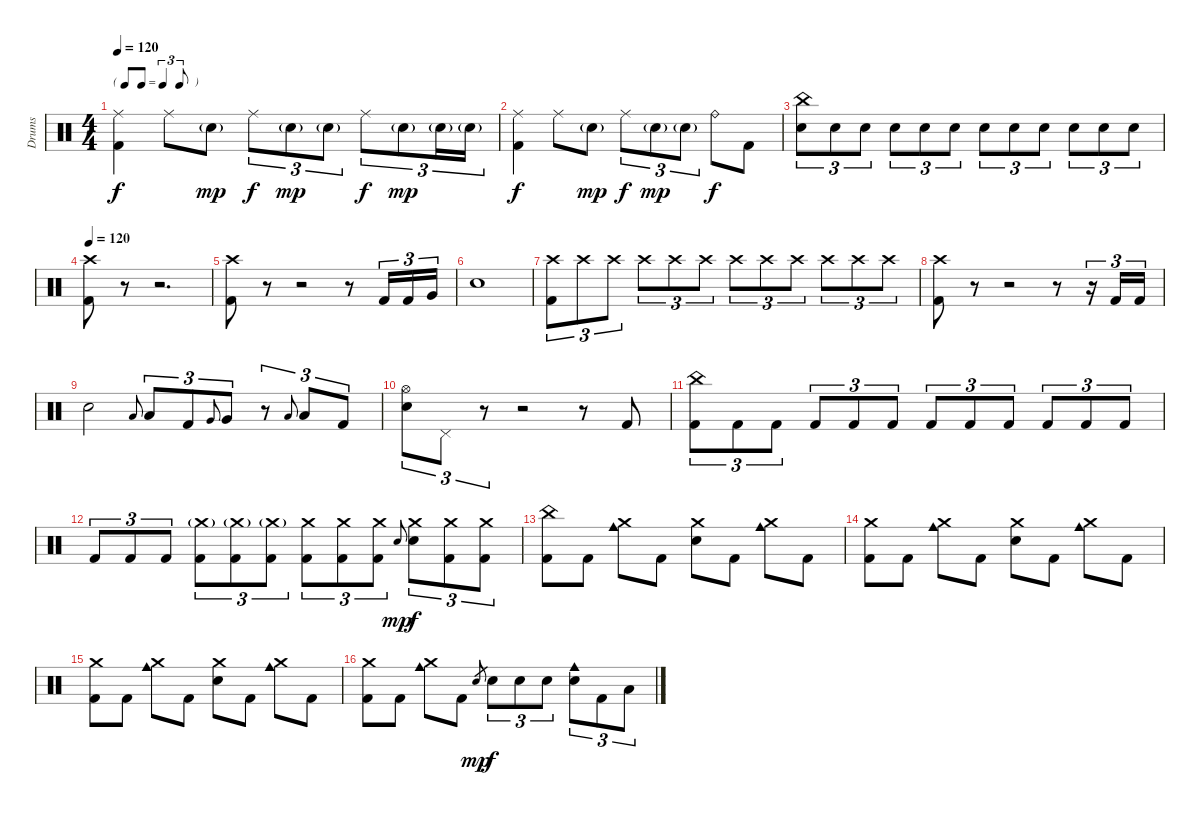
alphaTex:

\track ("Drums" "Drums") {instrument percussion}
\staff {score}
\articulation defaults
\ts (4 4)
\tf triplet8th
\tempo 120
\clef neutral
\ks c
("Ride (middle)" "Kick (hit) 2").4{dy f} "Ride (middle)".8 "Snare (hit) 2"{g}.8{dy mp} "Ride (middle)".8{tu (3 2) dy f} "Snare (hit) 2"{g}.8{tu (3 2) dy mp} "Snare (hit) 2"{g}.8{tu (3 2)} "Ride (middle)".8{tu (3 2) dy f} "Snare (hit) 2"{g}.8{tu (3 2) dy mp} "Snare (hit) 2"{g}.16{tu (3 2)} "Snare (hit) 2"{g}.16{tu (3 2)} |
("Ride (middle)" "Kick (hit) 2").4{dy f} "Ride (middle)".8 "Snare (hit) 2"{g}.8{dy mp} "Ride (middle)".8{tu (3 2) dy f} "Snare (hit) 2"{g}.8{tu (3 2) dy mp} "Snare (hit) 2"{g}.8{tu (3 2)} "Ride (bell)".8{dy f} "Kick (hit) 2".8 |
("China (hit)" "Electric Snare (hit)").8{tu (3 2)} "Electric Snare (hit)".8{tu (3 2)} "Electric Snare (hit)".8{tu (3 2)} "Electric Snare (hit)".8{tu (3 2)} "Electric Snare (hit)".8{tu (3 2)} "Electric Snare (hit)".8{tu (3 2)} "Electric Snare (hit)".8{tu (3 2)} "Electric Snare (hit)".8{tu (3 2)} "Electric Snare (hit)".8{tu (3 2)} "Electric Snare (hit)".8{tu (3 2)} "Electric Snare (hit)".8{tu (3 2)} "Electric Snare (hit)".8{tu (3 2)} |
\tempo 120
("Crash high (hit)" "Kick (hit) 2").8{volume 13} r.8{volume 0} r.2{d} |
("Crash high (hit)" "Kick (hit) 2").8{volume 13} r.8{volume 0} r.2 r.8{volume 13} "Kick (hit) 2".16{tu (3 2)} "Kick (hit) 2".16{tu (3 2)} "Very Low Tom (hit)".16{tu (3 2)} |
"Electric Snare (hit)".1 |
("Crash high (hit)" "Kick (hit) 2").8{tu (3 2)} "Crash high (hit)".8{tu (3 2)} "Crash high (hit)".8{tu (3 2)} "Crash high (hit)".8{tu (3 2)} "Crash high (hit)".8{tu (3 2)} "Crash high (hit)".8{tu (3 2)} "Crash high (hit)".8{tu (3 2)} "Crash high (hit)".8{tu (3 2)} "Crash high (hit)".8{tu (3 2)} "Crash high (hit)".8{tu (3 2)} "Crash high (hit)".8{tu (3 2)} "Crash high (hit)".8{tu (3 2)} |
("Crash high (hit)" "Kick (hit) 2").8 r.8{volume 0} r.2 r.8{volume 13} r.16{tu (3 2)} "Kick (hit) 2".16{tu (3 2)} "Kick (hit) 2".16{tu (3 2)} |
"Electric Snare (hit)".2 "Low Tom (hit)".8{gr onbeat} "Low Tom (hit)".8{tu (3 2)} "Kick (hit) 2".8{tu (3 2)} "Very Low Tom (hit)".8{gr onbeat} "Very Low Tom (hit)".8{tu (3 2)} r.8{tu (3 2)} "Low Floor Tom (hit)".8{gr onbeat} "Low Floor Tom (hit)".8{tu (3 2)} "Kick (hit) 2".8{tu (3 2)} |
("Hi-Hat (open)" "Electric Snare (hit)").8{tu (3 2)} "Pedal Hi-Hat (hit)".8{tu (3 2)} r.8{tu (3 2)} r.2 r.8 "Kick (hit) 2".8 |
("China (hit)" "Kick (hit) 2").8{tu (3 2)} "Kick (hit) 2".8{tu (3 2)} "Kick (hit) 2".8{tu (3 2)} "Kick (hit) 2".8{tu (3 2)} "Kick (hit) 2".8{tu (3 2)} "Kick (hit) 2".8{tu (3 2)} "Kick (hit) 2".8{tu (3 2)} "Kick (hit) 2".8{tu (3 2)} "Kick (hit) 2".8{tu (3 2)} "Kick (hit) 2".8{tu (3 2)} "Kick (hit) 2".8{tu (3 2)} "Kick (hit) 2".8{tu (3 2)} |
"Kick (hit) 2".8{tu (3 2)} "Kick (hit) 2".8{tu (3 2)} "Kick (hit) 2".8{tu (3 2)} ("Crash medium (hit)"{g} "Kick (hit) 2").8{tu (3 2)} ("Crash medium (hit)"{g} "Kick (hit) 2").8{tu (3 2)} ("Crash medium (hit)"{g} "Kick (hit) 2").8{tu (3 2)} ("Crash medium (hit)" "Kick (hit) 2").8{tu (3 2)} ("Crash medium (hit)" "Kick (hit) 2").8{tu (3 2)} ("Crash medium (hit)" "Kick (hit) 2").8{tu (3 2)} "Electric Snare (hit)".8{gr onbeat dy mp} ("Crash medium (hit)" "Electric Snare (hit)").8{tu (3 2) dy f} ("Crash medium (hit)" "Kick (hit) 2").8{tu (3 2)} ("Crash medium (hit)" "Kick (hit) 2").8{tu (3 2)} |
("China (hit)" "Kick (hit) 2").8 "Kick (hit) 2".8 ("Crash medium (hit)" "Cowbell medium (hit)").8 "Kick (hit) 2".8 ("Crash medium (hit)" "Electric Snare (hit)").8 "Kick (hit) 2".8 ("Crash medium (hit)" "Cowbell medium (hit)").8 "Kick (hit) 2".8 |
("Crash medium (hit)" "Kick (hit) 2").8 "Kick (hit) 2".8 ("Crash medium (hit)" "Cowbell medium (hit)").8 "Kick (hit) 2".8 ("Crash medium (hit)" "Electric Snare (hit)").8 "Kick (hit) 2".8 ("Crash medium (hit)" "Cowbell medium (hit)").8 "Kick (hit) 2".8 |
("Crash medium (hit)" "Kick (hit) 2").8 "Kick (hit) 2".8 ("Crash medium (hit)" "Cowbell medium (hit)").8 "Kick (hit) 2".8 ("Crash medium (hit)" "Electric Snare (hit)").8 "Kick (hit) 2".8 ("Crash medium (hit)" "Cowbell medium (hit)").8 "Kick (hit) 2".8 |
("Crash medium (hit)" "Kick (hit) 2").8 "Kick (hit) 2".8 ("Crash medium (hit)" "Cowbell medium (hit)").8 "Kick (hit) 2".8 "Electric Snare (hit)".8{gr dy mp} "Electric Snare (hit)".8{tu (3 2) dy f} "Electric Snare (hit)".8{tu (3 2)} "Electric Snare (hit)".8{tu (3 2)} ("Cowbell medium (hit)" "Electric Snare (hit)").8{tu (3 2)} "Kick (hit) 2".8{tu (3 2)} "Low Tom (hit)".8{tu (3 2)}
